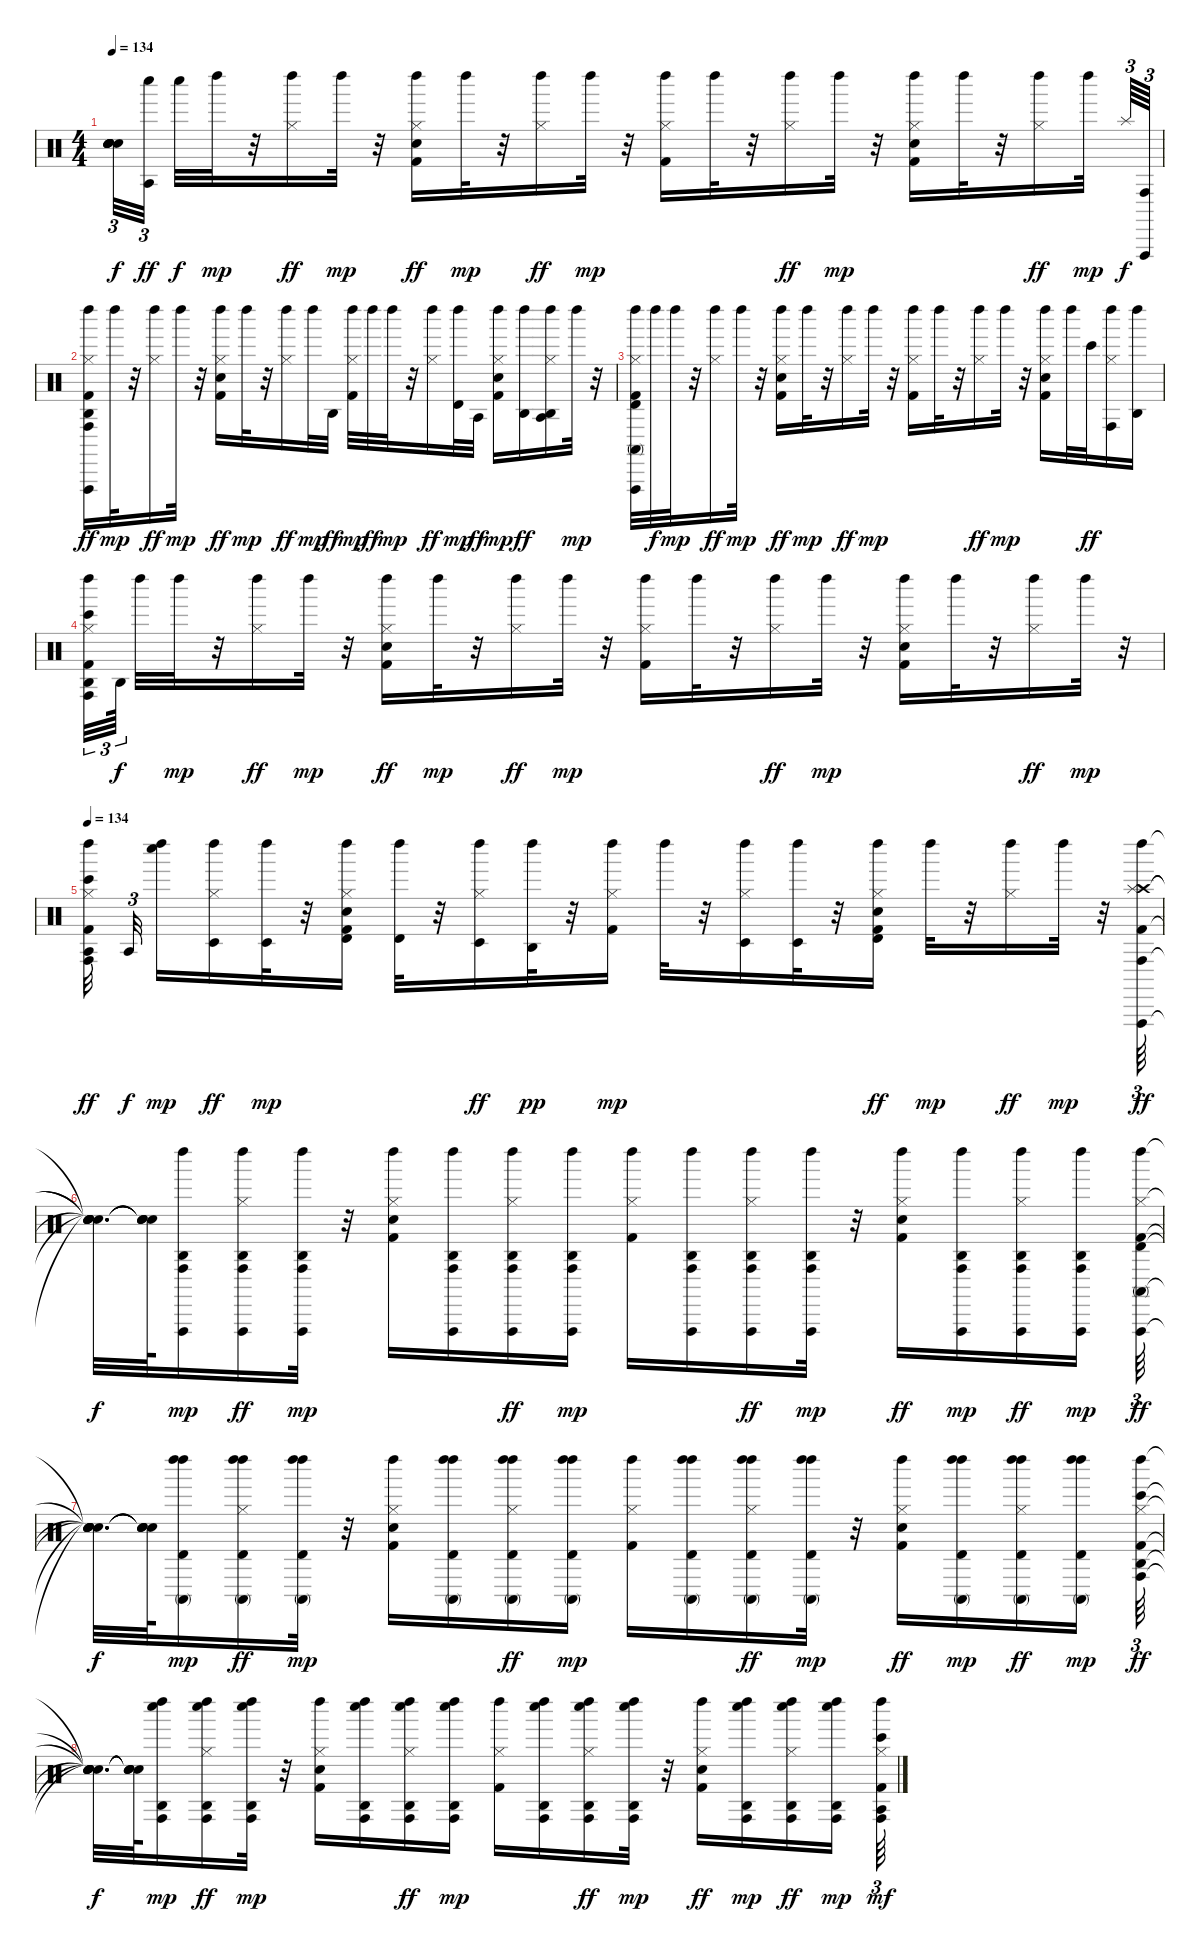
\track "" {instrument percussion}
\staff {score}
\articulation defaults
\ts (4 4)
\tempo 134
\clef neutral
\ks c
("Snare (hit)"{t} "Snare (hit)"{t} "Snare (hit)"{t} "Snare (hit)"{t} "Snare (hit)"{t} "Snare (hit)"{t}).32{tu (3 2) dy f} ("Whistle low (hit)" "Agogo tow (hit)").32{tu (3 2) dy ff beam splitsecondary} "Whistle low (hit)".32{dy f} "Left Maraca (hit)".32{dy mp} r.32 ("Left Maraca (hit)" "Hi-Hat (closed)").16{dy ff} "Left Maraca (hit)".32{dy mp} r.32 ("Left Maraca (hit)" "Hi-Hat (closed)" "Snare (hit) 2" "Kick (hit) 2").16{dy ff} "Left Maraca (hit)".32{dy mp} r.32 ("Left Maraca (hit)" "Hi-Hat (closed)").16{dy ff} "Left Maraca (hit)".32{dy mp} r.32 ("Kick (hit) 2" "Hi-Hat (closed)" "Left Maraca (hit)").16 "Left Maraca (hit)".32 r.32 ("Hi-Hat (closed)" "Left Maraca (hit)").16{dy ff} "Left Maraca (hit)".32{dy mp} r.32 ("Kick (hit) 2" "Snare (hit) 2" "Hi-Hat (closed)" "Left Maraca (hit)").16 "Left Maraca (hit)".32 r.32 ("Hi-Hat (closed)" "Left Maraca (hit)").16{dy ff} "Left Maraca (hit)".32{dy mp beam splitsecondary} "Splash (hit)".64{tu (3 2) dy f} ("Conga high (hit)" "Vibraslap (hit)").64{tu (3 2)} |
("Agogo high (hit)" "Left Maraca (hit)" "Hi-Hat (closed)" "Kick (hit) 2" "Conga high (hit)" "Vibraslap (hit)").16{dy ff} "Left Maraca (hit)".32{dy mp} r.32 ("Left Maraca (hit)" "Hi-Hat (closed)").16{dy ff} "Left Maraca (hit)".32{dy mp} r.32 ("Left Maraca (hit)" "Hi-Hat (closed)" "Snare (hit) 2" "Kick (hit) 2").16{dy ff} "Left Maraca (hit)".32{dy mp} r.32 ("Hi-Hat (closed)" "Left Maraca (hit)").16{dy ff} "Left Maraca (hit)".32{dy mp} "Agogo high (hit)".32{dy ff} ("Kick (hit) 2" "Hi-Hat (closed)" "Left Maraca (hit)").32{dy mp} "Left Maraca (hit)".32{dy ff} "Left Maraca (hit)".32{dy mp} r.32 ("Hi-Hat (closed)" "Left Maraca (hit)").16{dy ff} ("Timbale high (hit)" "Left Maraca (hit)").32{dy mp} "Agogo tow (hit)".32{dy ff} ("Kick (hit) 2" "Snare (hit) 2" "Hi-Hat (closed)" "Left Maraca (hit)").16{dy mp} ("Left Maraca (hit)" "Agogo high (hit)").16{dy ff} ("Agogo tow (hit)" "Left Maraca (hit)" "Hi-Hat (closed)" "Agogo high (hit)").16 "Left Maraca (hit)".32{dy mp} r.32 |
("Vibraslap (hit)" "Timbale high (hit)" "Conga high (mute)" "Left Maraca (hit)" "Hi-Hat (closed)" "Kick (hit) 2").32 "Left Maraca (hit)".32{dy f} "Left Maraca (hit)".32{dy mp} r.32 ("Left Maraca (hit)" "Hi-Hat (closed)").16{dy ff} "Left Maraca (hit)".32{dy mp} r.32 ("Left Maraca (hit)" "Hi-Hat (closed)" "Snare (hit) 2" "Kick (hit) 2").16{dy ff} "Left Maraca (hit)".32{dy mp} r.32 ("Hi-Hat (closed)" "Left Maraca (hit)").16{dy ff} "Left Maraca (hit)".32{dy mp} r.32 ("Kick (hit) 2" "Hi-Hat (closed)" "Left Maraca (hit)").16 "Left Maraca (hit)".32 r.32 ("Hi-Hat (closed)" "Left Maraca (hit)").16{dy ff} "Left Maraca (hit)".32{dy mp} r.32 ("Kick (hit) 2" "Snare (hit) 2" "Hi-Hat (closed)" "Left Maraca (hit)").16 "Left Maraca (hit)".32 "Bongo High (hit)".32{dy ff} ("Left Maraca (hit)" "Hi-Hat (closed)" "Conga high (hit)").16 ("Left Maraca (hit)" "Agogo high (hit)").16 |
("Conga high (hit)" "Bongo High (hit)" "Left Maraca (hit)" "Hi-Hat (closed)" "Kick (hit) 2" "Agogo high (hit)").32{tu (3 2)} "Agogo high (hit)".64{tu (3 2) dy f beam splitsecondary} "Left Maraca (hit)".32 "Left Maraca (hit)".32{dy mp} r.32 ("Left Maraca (hit)" "Hi-Hat (closed)").16{dy ff} "Left Maraca (hit)".32{dy mp} r.32 ("Left Maraca (hit)" "Hi-Hat (closed)" "Snare (hit) 2" "Kick (hit) 2").16{dy ff} "Left Maraca (hit)".32{dy mp} r.32 ("Hi-Hat (closed)" "Left Maraca (hit)").16{dy ff} "Left Maraca (hit)".32{dy mp} r.32 ("Kick (hit) 2" "Hi-Hat (closed)" "Left Maraca (hit)").16 "Left Maraca (hit)".32 r.32 ("Hi-Hat (closed)" "Left Maraca (hit)").16{dy ff} "Left Maraca (hit)".32{dy mp} r.32 ("Kick (hit) 2" "Snare (hit) 2" "Hi-Hat (closed)" "Left Maraca (hit)").16 "Left Maraca (hit)".32 r.32 ("Left Maraca (hit)" "Hi-Hat (closed)").16{dy ff} "Left Maraca (hit)".32{dy mp} r.32 |
\tempo 134
("Bongo High (hit)" "Left Maraca (hit)" "Hi-Hat (closed)" "Kick (hit) 2" "Agogo tow (hit)" "Conga high (hit)").32{dy ff beam splitsecondary} "Agogo tow (hit)".32{tu (3 2) dy f beam splitsecondary} ("Whistle low (hit)" "Left Maraca (hit)").16{dy mp} ("Left Maraca (hit)" "Timbale low (hit)" "Hi-Hat (closed)").16{dy ff} ("Timbale low (hit)" "Left Maraca (hit)").32{dy mp} r.32 ("Kick (hit) 2" "Snare (hit) 2" "Hi-Hat (closed)" "Timbale high (hit)" "Left Maraca (hit)").16 ("Left Maraca (hit)" "Timbale high (hit)").32 r.32 ("Hi-Hat (closed)" "Timbale low (hit)" "Left Maraca (hit)").16{dy ff} ("Left Maraca (hit)" "Agogo high (hit)").32{dy pp} r.32 ("Kick (hit) 2" "Hi-Hat (closed)" "Left Maraca (hit)").16{dy mp} "Left Maraca (hit)".32 r.32 ("Hi-Hat (closed)" "Timbale low (hit)" "Left Maraca (hit)").16 ("Left Maraca (hit)" "Timbale low (hit)").32 r.32 ("Left Maraca (hit)" "Timbale high (hit)" "Hi-Hat (closed)" "Snare (hit) 2" "Kick (hit) 2").16{dy ff} "Left Maraca (hit)".32{dy mp} r.32 ("Left Maraca (hit)" "Hi-Hat (closed)").16{dy ff} "Left Maraca (hit)".32{dy mp} r.32 ("Left Maraca (hit)" "Crash high (hit)" "Kick (hit) 2" "Conga high (hit)" "Vibraslap (hit)" "Splash (hit)").64{tu (3 2) dy ff} |
("Snare (hit)"{t} "Snare (hit)"{t} "Snare (hit)"{t} "Snare (hit)"{t} "Snare (hit)"{t} "Snare (hit)"{t}).32{d dy f} ("Snare (hit)"{t} "Snare (hit)"{t} "Snare (hit)"{t} "Snare (hit)"{t}).64 ("Agogo high (hit)" "Conga high (hit)" "Vibraslap (hit)" "Left Maraca (hit)").16{dy mp} ("Agogo high (hit)" "Conga high (hit)" "Vibraslap (hit)" "Left Maraca (hit)" "Hi-Hat (closed)").16{dy ff} ("Vibraslap (hit)" "Conga high (hit)" "Agogo high (hit)" "Left Maraca (hit)").32{dy mp} r.32 ("Kick (hit) 2" "Snare (hit) 2" "Hi-Hat (closed)" "Left Maraca (hit)").16 ("Agogo high (hit)" "Conga high (hit)" "Vibraslap (hit)" "Left Maraca (hit)").16 ("Agogo high (hit)" "Conga high (hit)" "Vibraslap (hit)" "Hi-Hat (closed)" "Left Maraca (hit)").16{dy ff} ("Agogo high (hit)" "Conga high (hit)" "Vibraslap (hit)" "Left Maraca (hit)").16{dy mp} ("Kick (hit) 2" "Hi-Hat (closed)" "Left Maraca (hit)").16 ("Agogo high (hit)" "Conga high (hit)" "Vibraslap (hit)" "Left Maraca (hit)").16 ("Agogo high (hit)" "Conga high (hit)" "Vibraslap (hit)" "Hi-Hat (closed)" "Left Maraca (hit)").16{dy ff} ("Agogo high (hit)" "Conga high (hit)" "Vibraslap (hit)" "Left Maraca (hit)").32{dy mp} r.32 ("Left Maraca (hit)" "Hi-Hat (closed)" "Snare (hit) 2" "Kick (hit) 2").16{dy ff} ("Agogo high (hit)" "Conga high (hit)" "Vibraslap (hit)" "Left Maraca (hit)").16{dy mp} ("Agogo high (hit)" "Conga high (hit)" "Vibraslap (hit)" "Left Maraca (hit)" "Hi-Hat (closed)").16{dy ff} ("Agogo high (hit)" "Conga high (hit)" "Vibraslap (hit)" "Left Maraca (hit)").16{dy mp} ("Left Maraca (hit)" "Hi-Hat (closed)" "Kick (hit) 2" "Timbale high (hit)" "Conga high (mute)" "Vibraslap (hit)").64{tu (3 2) dy ff} |
("Snare (hit)"{t} "Snare (hit)"{t} "Snare (hit)"{t} "Snare (hit)"{t} "Snare (hit)"{t} "Snare (hit)"{t}).32{d dy f} ("Snare (hit)"{t} "Snare (hit)"{t} "Snare (hit)"{t} "Snare (hit)"{t}).64 ("Left Maraca (hit)" "Timbale high (hit)" "Conga high (mute)" "Left Maraca (hit)").16{dy mp} ("Left Maraca (hit)" "Timbale high (hit)" "Conga high (mute)" "Left Maraca (hit)" "Hi-Hat (closed)").16{dy ff} ("Left Maraca (hit)" "Timbale high (hit)" "Conga high (mute)" "Left Maraca (hit)").32{dy mp} r.32 ("Kick (hit) 2" "Snare (hit) 2" "Hi-Hat (closed)" "Left Maraca (hit)").16 ("Left Maraca (hit)" "Timbale high (hit)" "Conga high (mute)" "Left Maraca (hit)").16 ("Left Maraca (hit)" "Timbale high (hit)" "Conga high (mute)" "Hi-Hat (closed)" "Left Maraca (hit)").16{dy ff} ("Left Maraca (hit)" "Timbale high (hit)" "Conga high (mute)" "Left Maraca (hit)").16{dy mp} ("Kick (hit) 2" "Hi-Hat (closed)" "Left Maraca (hit)").16 ("Left Maraca (hit)" "Timbale high (hit)" "Conga high (mute)" "Left Maraca (hit)").16 ("Conga high (mute)" "Timbale high (hit)" "Left Maraca (hit)" "Hi-Hat (closed)" "Left Maraca (hit)").16{dy ff} ("Left Maraca (hit)" "Timbale high (hit)" "Conga high (mute)" "Left Maraca (hit)").32{dy mp} r.32 ("Left Maraca (hit)" "Hi-Hat (closed)" "Snare (hit) 2" "Kick (hit) 2").16{dy ff} ("Left Maraca (hit)" "Timbale high (hit)" "Conga high (mute)" "Left Maraca (hit)").16{dy mp} ("Left Maraca (hit)" "Timbale high (hit)" "Conga high (mute)" "Left Maraca (hit)" "Hi-Hat (closed)").16{dy ff} ("Left Maraca (hit)" "Timbale high (hit)" "Conga high (mute)" "Left Maraca (hit)").16{dy mp} ("Left Maraca (hit)" "Hi-Hat (closed)" "Kick (hit) 2" "Agogo high (hit)" "Conga high (hit)" "Bongo High (hit)").64{tu (3 2) dy ff} |
("Snare (hit)"{t} "Snare (hit)"{t} "Snare (hit)"{t} "Snare (hit)"{t} "Snare (hit)"{t} "Snare (hit)"{t}).32{d dy f} ("Snare (hit)"{t} "Snare (hit)"{t} "Snare (hit)"{t} "Snare (hit)"{t}).64 ("Whistle low (hit)" "Agogo high (hit)" "Conga high (hit)" "Left Maraca (hit)").16{dy mp} ("Whistle low (hit)" "Agogo high (hit)" "Conga high (hit)" "Left Maraca (hit)" "Hi-Hat (closed)").16{dy ff} ("Whistle low (hit)" "Agogo high (hit)" "Conga high (hit)" "Left Maraca (hit)").32{dy mp} r.32 ("Kick (hit) 2" "Snare (hit) 2" "Hi-Hat (closed)" "Left Maraca (hit)").16 ("Whistle low (hit)" "Agogo high (hit)" "Conga high (hit)" "Left Maraca (hit)").16 ("Whistle low (hit)" "Agogo high (hit)" "Conga high (hit)" "Hi-Hat (closed)" "Left Maraca (hit)").16{dy ff} ("Whistle low (hit)" "Agogo high (hit)" "Conga high (hit)" "Left Maraca (hit)").16{dy mp} ("Kick (hit) 2" "Hi-Hat (closed)" "Left Maraca (hit)").16 ("Whistle low (hit)" "Agogo high (hit)" "Conga high (hit)" "Left Maraca (hit)").16 ("Whistle low (hit)" "Agogo high (hit)" "Conga high (hit)" "Left Maraca (hit)" "Hi-Hat (closed)").16{dy ff} ("Whistle low (hit)" "Agogo high (hit)" "Conga high (hit)" "Left Maraca (hit)").32{dy mp} r.32 ("Left Maraca (hit)" "Hi-Hat (closed)" "Snare (hit) 2" "Kick (hit) 2").16{dy ff} ("Whistle low (hit)" "Agogo high (hit)" "Conga high (hit)" "Left Maraca (hit)").16{dy mp} ("Whistle low (hit)" "Agogo high (hit)" "Conga high (hit)" "Left Maraca (hit)" "Hi-Hat (closed)").16{dy ff} ("Whistle low (hit)" "Agogo high (hit)" "Conga high (hit)" "Left Maraca (hit)").16{dy mp} ("Left Maraca (hit)" "Hi-Hat (closed)" "Kick (hit) 2" "Agogo tow (hit)" "Conga high (hit)" "Bongo High (hit)").64{tu (3 2) dy mf}
